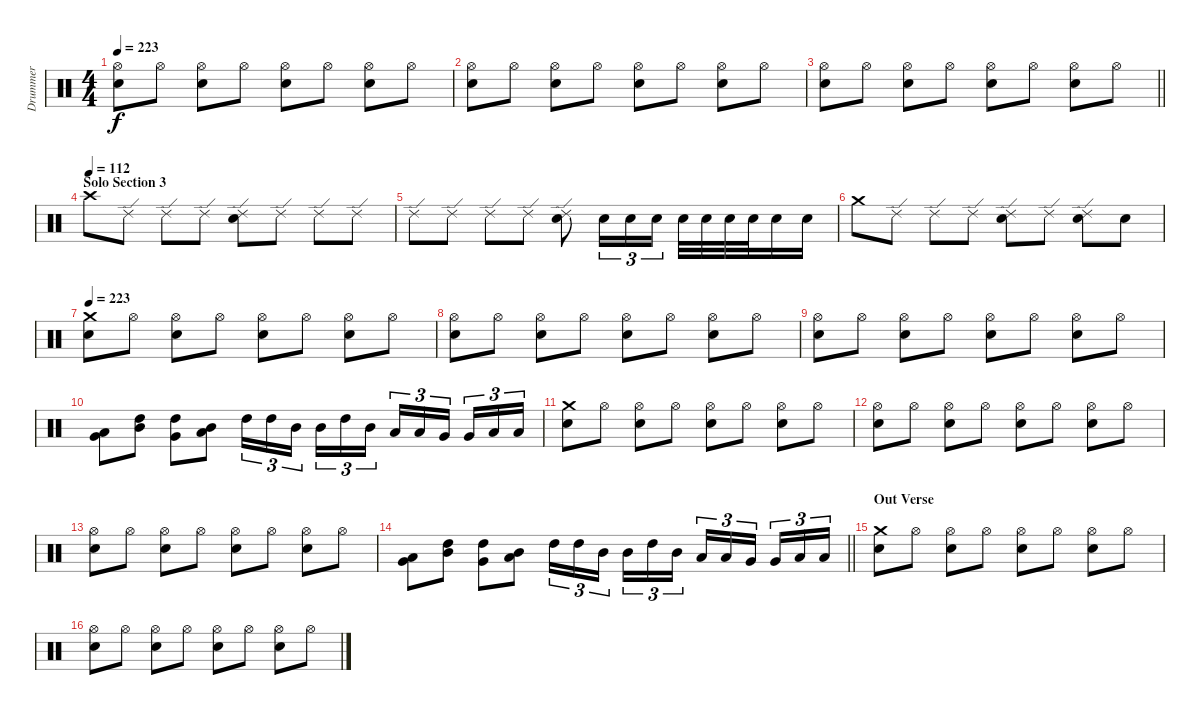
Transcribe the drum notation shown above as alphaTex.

\track ("Drummer" "Drummer") {instrument percussion}
\staff {score}
\articulation defaults
\ts (4 4)
\tempo 223
\clef neutral
\ks c
("Hi-Hat (open)" "Electric Snare (hit)").8{dy f} "Hi-Hat (open)".8 ("Hi-Hat (open)" "Electric Snare (hit)").8 "Hi-Hat (open)".8 ("Hi-Hat (open)" "Electric Snare (hit)").8 "Hi-Hat (open)".8 ("Hi-Hat (open)" "Electric Snare (hit)").8 "Hi-Hat (open)".8 |
("Hi-Hat (open)" "Electric Snare (hit)").8 "Hi-Hat (open)".8 ("Hi-Hat (open)" "Electric Snare (hit)").8 "Hi-Hat (open)".8 ("Hi-Hat (open)" "Electric Snare (hit)").8 "Hi-Hat (open)".8 ("Hi-Hat (open)" "Electric Snare (hit)").8 "Hi-Hat (open)".8 |
\barLineRight lightlight
("Hi-Hat (open)" "Electric Snare (hit)").8 "Hi-Hat (open)".8 ("Hi-Hat (open)" "Electric Snare (hit)").8 "Hi-Hat (open)".8 ("Hi-Hat (open)" "Electric Snare (hit)").8 "Hi-Hat (open)".8 ("Hi-Hat (open)" "Electric Snare (hit)").8 "Hi-Hat (open)".8 |
\section ("" "Solo Section 3")
\tempo (112)
"Crash high (hit)".8 "Ride (edge) 2".8 "Ride (edge) 2".8 "Ride (edge) 2".8 ("Ride (edge) 2" "Electric Snare (hit)").8 "Ride (edge) 2".8 "Ride (edge) 2".8 "Ride (edge) 2".8 |
"Ride (edge) 2".8 "Ride (edge) 2".8 "Ride (edge) 2".8 "Ride (edge) 2".8 ("Ride (edge) 2" "Electric Snare (hit)").8 "Electric Snare (hit)".16{tu (3 2)} "Electric Snare (hit)".16{tu (3 2)} "Electric Snare (hit)".16{tu (3 2)} "Electric Snare (hit)".32 "Electric Snare (hit)".32 "Electric Snare (hit)".32 "Electric Snare (hit)".32 "Electric Snare (hit)".16 "Electric Snare (hit)".16 |
"Crash medium (hit)".8 "Ride (edge) 2".8 "Ride (edge) 2".8 "Ride (edge) 2".8 ("Ride (edge) 2" "Electric Snare (hit)").8 "Ride (edge) 2".8 ("Ride (edge) 2" "Electric Snare (hit)").8 "Electric Snare (hit)".8 |
\tempo 223
("Crash medium (hit)" "Electric Snare (hit)").8 "Hi-Hat (open)".8 ("Hi-Hat (open)" "Electric Snare (hit)").8 "Hi-Hat (open)".8 ("Hi-Hat (open)" "Electric Snare (hit)").8 "Hi-Hat (open)".8 ("Hi-Hat (open)" "Electric Snare (hit)").8 "Hi-Hat (open)".8 |
("Hi-Hat (open)" "Electric Snare (hit)").8 "Hi-Hat (open)".8 ("Hi-Hat (open)" "Electric Snare (hit)").8 "Hi-Hat (open)".8 ("Hi-Hat (open)" "Electric Snare (hit)").8 "Hi-Hat (open)".8 ("Hi-Hat (open)" "Electric Snare (hit)").8 "Hi-Hat (open)".8 |
("Hi-Hat (open)" "Electric Snare (hit)").8 "Hi-Hat (open)".8 ("Hi-Hat (open)" "Electric Snare (hit)").8 "Hi-Hat (open)".8 ("Hi-Hat (open)" "Electric Snare (hit)").8 "Hi-Hat (open)".8 ("Hi-Hat (open)" "Electric Snare (hit)").8 "Hi-Hat (open)".8 |
("Very Low Tom (hit)" "Low Tom (hit)").8 ("Mid Tom (hit)" "High Tom (hit)").8 ("High Tom (hit)" "Very Low Tom (hit)").8 ("Low Floor Tom (hit)" "Mid Tom (hit)").8 "High Tom (hit)".16{tu (3 2)} "High Tom (hit)".16{tu (3 2)} "Mid Tom (hit)".16{tu (3 2) beam splitsecondary} "Mid Tom (hit)".16{tu (3 2)} "High Tom (hit)".16{tu (3 2)} "Mid Tom (hit)".16{tu (3 2)} "Low Tom (hit)".16{tu (3 2)} "Low Tom (hit)".16{tu (3 2)} "Very Low Tom (hit)".16{tu (3 2) beam splitsecondary} "Very Low Tom (hit)".16{tu (3 2)} "Low Floor Tom (hit)".16{tu (3 2)} "Low Floor Tom (hit)".16{tu (3 2)} |
("Crash medium (hit)" "Electric Snare (hit)").8 "Hi-Hat (open)".8 ("Hi-Hat (open)" "Electric Snare (hit)").8 "Hi-Hat (open)".8 ("Hi-Hat (open)" "Electric Snare (hit)").8 "Hi-Hat (open)".8 ("Hi-Hat (open)" "Electric Snare (hit)").8 "Hi-Hat (open)".8 |
("Hi-Hat (open)" "Electric Snare (hit)").8 "Hi-Hat (open)".8 ("Hi-Hat (open)" "Electric Snare (hit)").8 "Hi-Hat (open)".8 ("Hi-Hat (open)" "Electric Snare (hit)").8 "Hi-Hat (open)".8 ("Hi-Hat (open)" "Electric Snare (hit)").8 "Hi-Hat (open)".8 |
("Hi-Hat (open)" "Electric Snare (hit)").8 "Hi-Hat (open)".8 ("Hi-Hat (open)" "Electric Snare (hit)").8 "Hi-Hat (open)".8 ("Hi-Hat (open)" "Electric Snare (hit)").8 "Hi-Hat (open)".8 ("Hi-Hat (open)" "Electric Snare (hit)").8 "Hi-Hat (open)".8 |
\barLineRight lightlight
("Very Low Tom (hit)" "Low Tom (hit)").8 ("Mid Tom (hit)" "High Tom (hit)").8 ("High Tom (hit)" "Very Low Tom (hit)").8 ("Low Floor Tom (hit)" "Mid Tom (hit)").8 "High Tom (hit)".16{tu (3 2)} "High Tom (hit)".16{tu (3 2)} "Mid Tom (hit)".16{tu (3 2) beam splitsecondary} "Mid Tom (hit)".16{tu (3 2)} "High Tom (hit)".16{tu (3 2)} "Mid Tom (hit)".16{tu (3 2)} "Low Tom (hit)".16{tu (3 2)} "Low Tom (hit)".16{tu (3 2)} "Very Low Tom (hit)".16{tu (3 2) beam splitsecondary} "Very Low Tom (hit)".16{tu (3 2)} "Low Floor Tom (hit)".16{tu (3 2)} "Low Floor Tom (hit)".16{tu (3 2)} |
\section ("" "Out Verse")
("Crash medium (hit)" "Electric Snare (hit)").8 "Hi-Hat (open)".8 ("Hi-Hat (open)" "Electric Snare (hit)").8 "Hi-Hat (open)".8 ("Hi-Hat (open)" "Electric Snare (hit)").8 "Hi-Hat (open)".8 ("Hi-Hat (open)" "Electric Snare (hit)").8 "Hi-Hat (open)".8 |
("Hi-Hat (open)" "Electric Snare (hit)").8 "Hi-Hat (open)".8 ("Hi-Hat (open)" "Electric Snare (hit)").8 "Hi-Hat (open)".8 ("Hi-Hat (open)" "Electric Snare (hit)").8 "Hi-Hat (open)".8 ("Hi-Hat (open)" "Electric Snare (hit)").8 "Hi-Hat (open)".8
